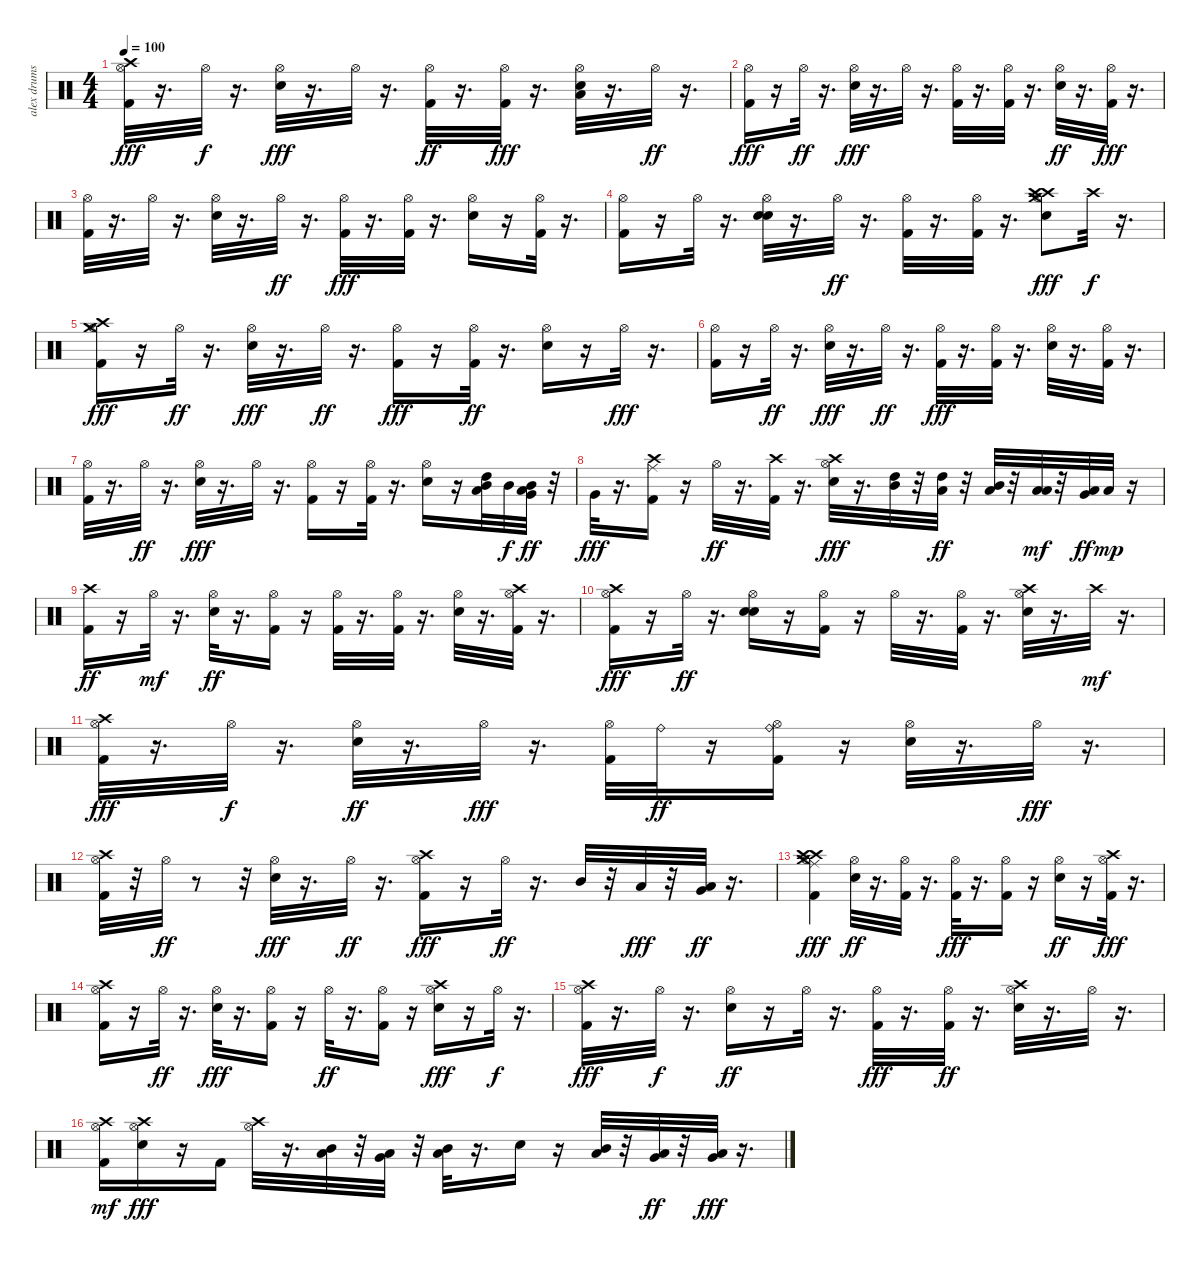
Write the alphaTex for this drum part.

\track ("alex drums" "alex drums") {instrument percussion}
\staff {score}
\articulation defaults
\ts (4 4)
\tempo 100
\clef neutral
\ks c
("Kick (hit) 2" "Crash high (hit)" "Hi-Hat (open)").32{dy fff} r.16{d} "Hi-Hat (open)".32{dy f} r.16{d} ("Hi-Hat (open)" "Electric Snare (hit)").32{dy fff} r.16{d} "Hi-Hat (open)".32 r.16{d} ("Kick (hit) 2" "Hi-Hat (open)").32{dy ff} r.16{d} ("Hi-Hat (open)" "Kick (hit) 2").32{dy fff} r.16{d} ("Hi-Hat (open)" "Low Floor Tom (hit)" "Electric Snare (hit)").32 r.16{d} "Hi-Hat (open)".32{dy ff} r.16{d} |
("Kick (hit) 2" "Hi-Hat (open)").16{dy fff} r.16 "Hi-Hat (open)".32{dy ff} r.16{d} ("Hi-Hat (open)" "Electric Snare (hit)").32{dy fff} r.16{d} "Hi-Hat (open)".32 r.16{d} ("Hi-Hat (open)" "Kick (hit) 2").32 r.16{d} ("Hi-Hat (open)" "Kick (hit) 2").32 r.16{d} ("Hi-Hat (open)" "Electric Snare (hit)").32{dy ff} r.16{d} ("Hi-Hat (open)" "Kick (hit) 2").32{dy fff} r.16{d} |
("Kick (hit) 2" "Hi-Hat (open)").32 r.16{d} "Hi-Hat (open)".32 r.16{d} ("Hi-Hat (open)" "Electric Snare (hit)").32 r.16{d} "Hi-Hat (open)".32{dy ff} r.16{d} ("Kick (hit) 2" "Hi-Hat (open)").32{dy fff} r.16{d} ("Kick (hit) 2" "Hi-Hat (open)").32 r.16{d} ("Hi-Hat (open)" "Electric Snare (hit)").16 r.16 ("Kick (hit) 2" "Hi-Hat (open)").32 r.16{d} |
("Hi-Hat (open)" "Kick (hit) 2").16 r.16 "Hi-Hat (open)".32 r.16{d} ("Hi-Hat (open)" "Snare (hit) 2" "Electric Snare (hit)").32 r.16{d} "Hi-Hat (open)".32{dy ff} r.16{d} ("Hi-Hat (open)" "Kick (hit) 2").32 r.16{d} ("Hi-Hat (open)" "Kick (hit) 2").32 r.16{d} ("Crash medium (hit)" "Crash high (hit)" "Hi-Hat (open)" "Electric Snare (hit)" "Crash high (hit)").8{dy fff} "Crash high (hit)".32{dy f} r.16{d} |
("Crash medium (hit)" "Crash high (hit)" "Hi-Hat (open)" "Kick (hit) 2").16{dy fff} r.16 "Hi-Hat (open)".32{dy ff} r.16{d} ("Hi-Hat (open)" "Electric Snare (hit)").32{dy fff} r.16{d} "Hi-Hat (open)".32{dy ff} r.16{d} ("Hi-Hat (open)" "Kick (hit) 2").16{dy fff} r.16 ("Hi-Hat (open)" "Kick (hit) 2").32{dy ff} r.16{d} ("Hi-Hat (open)" "Electric Snare (hit)").16 r.16 "Hi-Hat (open)".32{dy fff} r.16{d} |
("Kick (hit) 2" "Hi-Hat (open)").16 r.16 "Hi-Hat (open)".32{dy ff} r.16{d} ("Hi-Hat (open)" "Electric Snare (hit)").32{dy fff} r.16{d} "Hi-Hat (open)".32{dy ff} r.16{d} ("Hi-Hat (open)" "Kick (hit) 2").32{dy fff} r.16{d} ("Hi-Hat (open)" "Kick (hit) 2").32 r.16{d} ("Hi-Hat (open)" "Electric Snare (hit)").32 r.16{d} ("Kick (hit) 2" "Hi-Hat (open)").32 r.16{d} |
("Hi-Hat (open)" "Kick (hit) 2").32 r.16{d} "Hi-Hat (open)".32{dy ff} r.16{d} ("Hi-Hat (open)" "Electric Snare (hit)").32{dy fff} r.16{d} "Hi-Hat (open)".32 r.16{d} ("Hi-Hat (open)" "Kick (hit) 2").16 r.16 ("Hi-Hat (open)" "Kick (hit) 2").32 r.16{d} ("Hi-Hat (open)" "Electric Snare (hit)").16 r.16 ("High Tom (hit)" "Low Tom (hit)" "Mid Tom (hit)").32 "Mid Tom (hit)".32{dy f} ("Mid Tom (hit)" "Low Floor Tom (hit)" "Very Low Tom (hit)").32{dy ff} r.32 |
"Very Low Tom (hit)".32{dy fff} r.16{d} ("Ride (middle)" "Crash high (hit)" "Kick (hit) 2").16 r.16 "Hi-Hat (open)".32{dy ff} r.16{d} ("Kick (hit) 2" "Crash high (hit)").32 r.16{d} ("Crash high (hit)" "Hi-Hat (open)" "Electric Snare (hit)").32{dy fff} r.16{d} ("High Tom (hit)" "Mid Tom (hit)").32 r.32 ("Low Tom (hit)" "High Tom (hit)").32{dy ff} r.32 ("Mid Tom (hit)" "Low Tom (hit)").32 r.32 ("Low Tom (hit)" "Low Floor Tom (hit)").32{dy mf} r.32 ("Low Tom (hit)" "Very Low Tom (hit)").32{dy ff} "Low Floor Tom (hit)".32{dy mp} r.16 |
("Kick (hit) 2" "Crash high (hit)").16{dy ff} r.16 "Hi-Hat (open)".32{dy mf} r.16{d} ("Hi-Hat (open)" "Electric Snare (hit)").32{dy ff} r.16{d} ("Hi-Hat (open)" "Kick (hit) 2").16 r.16 ("Hi-Hat (open)" "Kick (hit) 2").32 r.16{d} ("Hi-Hat (open)" "Kick (hit) 2").32 r.16{d} ("Hi-Hat (open)" "Electric Snare (hit)").32 r.16{d} ("Hi-Hat (open)" "Kick (hit) 2" "Crash high (hit)").32 r.16{d} |
("Hi-Hat (open)" "Crash high (hit)" "Kick (hit) 2").16{dy fff} r.16 "Hi-Hat (open)".32{dy ff} r.16{d} ("Snare (hit) 2" "Hi-Hat (open)" "Electric Snare (hit)").16 r.16 ("Kick (hit) 2" "Hi-Hat (open)").16 r.16 "Hi-Hat (open)".32 r.16{d} ("Kick (hit) 2" "Hi-Hat (open)").32 r.16{d} ("Hi-Hat (open)" "Crash high (hit)" "Electric Snare (hit)").32 r.16{d} "Crash high (hit)".32{dy mf} r.16{d} |
("Kick (hit) 2" "Hi-Hat (open)" "Crash high (hit)").32{dy fff} r.16{d} "Hi-Hat (open)".32{dy f} r.16{d} ("Hi-Hat (open)" "Electric Snare (hit)").32{dy ff} r.16{d} "Hi-Hat (open)".32{dy fff} r.16{d} ("Kick (hit) 2" "Hi-Hat (open)").32 "Ride (bell)".32{dy ff} r.16 ("Ride (bell)" "Hi-Hat (open)" "Kick (hit) 2").16 r.16 ("Hi-Hat (open)" "Electric Snare (hit)").32 r.16{d} "Hi-Hat (open)".32{dy fff} r.16{d} |
("Hi-Hat (open)" "Crash high (hit)" "Kick (hit) 2").32 r.32 "Hi-Hat (open)".32{dy ff} r.8 r.32 ("Electric Snare (hit)" "Hi-Hat (open)").32{dy fff} r.16{d} "Hi-Hat (open)".32{dy ff} r.16{d} ("Kick (hit) 2" "Hi-Hat (open)" "Crash high (hit)").16{dy fff} r.16 "Hi-Hat (open)".32{dy ff} r.16{d} "Mid Tom (hit)".32 r.32 "Low Tom (hit)".32{dy fff} r.32 ("Very Low Tom (hit)" "Low Floor Tom (hit)").32{dy ff} r.16{d} |
("Crash high (hit)" "Crash medium (hit)" "Ride (middle)" "Hi-Hat (open)" "Crash high (hit)" "Kick (hit) 2").4{dy fff} ("Hi-Hat (open)" "Electric Snare (hit)").32{dy ff} r.16{d} ("Kick (hit) 2" "Hi-Hat (open)").32 r.16{d} ("Hi-Hat (open)" "Kick (hit) 2").32{dy fff} r.16{d} ("Kick (hit) 2" "Hi-Hat (open)").16 r.16 ("Hi-Hat (open)" "Electric Snare (hit)").16{dy ff} r.16 ("Hi-Hat (open)" "Crash high (hit)" "Kick (hit) 2").32{dy fff} r.16{d} |
("Hi-Hat (open)" "Crash high (hit)" "Kick (hit) 2").16 r.16 "Hi-Hat (open)".32{dy ff} r.16{d} ("Hi-Hat (open)" "Electric Snare (hit)").32{dy fff} r.16{d} ("Kick (hit) 2" "Hi-Hat (open)").16 r.16 "Hi-Hat (open)".32{dy ff} r.16{d} ("Kick (hit) 2" "Hi-Hat (open)").16 r.16 ("Hi-Hat (open)" "Crash high (hit)" "Electric Snare (hit)").16{dy fff} r.16 "Hi-Hat (open)".32{dy f} r.16{d} |
("Hi-Hat (open)" "Kick (hit) 2" "Crash high (hit)").32{dy fff} r.16{d} "Hi-Hat (open)".32{dy f} r.16{d} ("Hi-Hat (open)" "Electric Snare (hit)").16{dy ff} r.16 "Hi-Hat (open)".32 r.16{d} ("Kick (hit) 2" "Hi-Hat (open)").32{dy fff} r.16{d} ("Kick (hit) 2" "Hi-Hat (open)").32{dy ff} r.16{d} ("Crash high (hit)" "Hi-Hat (open)" "Electric Snare (hit)").32 r.16{d} "Hi-Hat (open)".32 r.16{d} |
("Hi-Hat (open)" "Crash high (hit)" "Kick (hit) 2").16{dy mf} ("Crash high (hit)" "Hi-Hat (open)" "Electric Snare (hit)").16{dy fff} r.16 "Kick (hit) 2".16 ("Crash high (hit)" "Hi-Hat (open)").32 r.16{d} ("Low Tom (hit)" "Mid Tom (hit)").32 r.32 ("Low Floor Tom (hit)" "Very Low Tom (hit)").32 r.32 ("Mid Tom (hit)" "Low Tom (hit)").32 r.16{d} "Electric Snare (hit)".16 r.16 ("Low Tom (hit)" "Mid Tom (hit)").32 r.32 ("Very Low Tom (hit)" "Low Tom (hit)").32{dy ff} r.32 ("Very Low Tom (hit)" "Low Floor Tom (hit)").32{dy fff} r.16{d}
